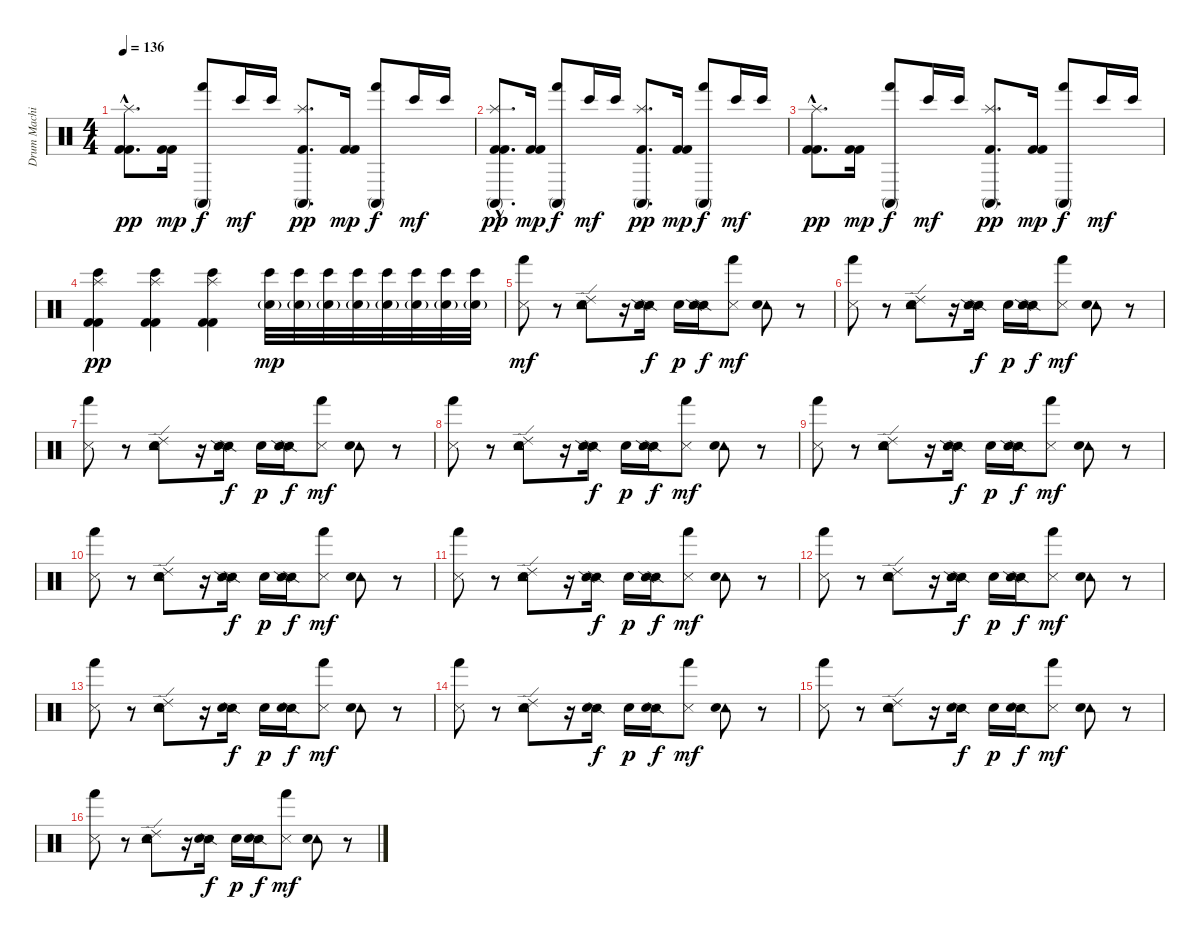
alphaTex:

\track ("Drum Machine" "Drum Machi") {instrument percussion}
\staff {score}
\articulation defaults
\ts (4 4)
\tempo 136
\clef neutral
\ks c
("Kick (hit) 2" "Splash (hit)" "Kick (hit) 2"{hac}).8{d dy pp} ("Kick (hit) 2" "Kick (hit) 2").16{dy mp} ("Hand (hit)" "Conga high (mute)").8{dy f} "Bongo High (hit)".16{dy mf} "Bongo High (hit)".16 ("Conga high (mute)" "Kick (hit) 2" "Splash (hit)").8{d dy pp} ("Kick (hit) 2" "Kick (hit) 2").16{dy mp} ("Hand (hit)" "Conga high (mute)").8{dy f} "Bongo High (hit)".16{dy mf} "Bongo High (hit)".16 |
("Conga high (mute)" "Kick (hit) 2" "Splash (hit)" "Kick (hit) 2"{hac}).8{d dy pp} ("Kick (hit) 2" "Kick (hit) 2").16{dy mp} ("Hand (hit)" "Conga high (mute)").8{dy f} "Bongo High (hit)".16{dy mf} "Bongo High (hit)".16 ("Conga high (mute)" "Kick (hit) 2" "Splash (hit)").8{d dy pp} ("Kick (hit) 2" "Kick (hit) 2").16{dy mp} ("Hand (hit)" "Conga high (mute)").8{dy f} "Bongo High (hit)".16{dy mf} "Bongo High (hit)".16 |
("Kick (hit) 2" "Splash (hit)" "Kick (hit) 2"{hac}).8{d dy pp} ("Kick (hit) 2" "Kick (hit) 2").16{dy mp} ("Hand (hit)" "Conga high (mute)").8{dy f} "Bongo High (hit)".16{dy mf} "Bongo High (hit)".16 ("Conga high (mute)" "Kick (hit) 2" "Splash (hit)").8{d dy pp} ("Kick (hit) 2" "Kick (hit) 2").16{dy mp} ("Hand (hit)" "Conga high (mute)").8{dy f} "Bongo High (hit)".16{dy mf} "Bongo High (hit)".16 |
("Kick (hit) 2" "Splash (hit)" "Kick (hit) 2" "Bongo High (hit)").4{dy pp} ("Kick (hit) 2" "Splash (hit)" "Kick (hit) 2" "Bongo High (hit)").4 ("Splash (hit)" "Bongo High (hit)" "Kick (hit) 2" "Kick (hit) 2").4 ("Bongo High (hit)" "Electric Snare (hit)"{g}).32{dy mp} ("Bongo High (hit)" "Electric Snare (hit)"{g}).32 ("Bongo High (hit)" "Electric Snare (hit)"{g}).32 ("Bongo High (hit)" "Electric Snare (hit)"{g}).32 ("Bongo High (hit)" "Electric Snare (hit)"{g}).32 ("Bongo High (hit)" "Electric Snare (hit)"{g}).32 ("Bongo High (hit)" "Electric Snare (hit)"{g}).32 ("Bongo High (hit)" "Electric Snare (hit)"{g}).32 |
("Hand (hit)" "Metronome (hit)").8{dy mf} r.8 ("Tambourine (hit)" "Metronome (bell)" "Ride (edge) 2").8 r.16 ("Snare (side stick) 2" "Snare (side stick) 2").16{dy f} "Metronome (bell)".16{dy p} ("Snare (side stick) 2" "Snare (side stick) 2").16{dy f} ("Metronome (hit)" "Hand (hit)").8{dy mf} ("Tambourine (hit)" "Metronome (bell)").8 r.8 |
("Hand (hit)" "Metronome (hit)").8 r.8 ("Tambourine (hit)" "Metronome (bell)" "Ride (edge) 2").8 r.16 ("Snare (side stick) 2" "Snare (side stick) 2").16{dy f} "Metronome (bell)".16{dy p} ("Snare (side stick) 2" "Snare (side stick) 2").16{dy f} ("Metronome (hit)" "Hand (hit)").8{dy mf} ("Tambourine (hit)" "Metronome (bell)").8 r.8 |
("Hand (hit)" "Metronome (hit)").8 r.8 ("Tambourine (hit)" "Metronome (bell)" "Ride (edge) 2").8 r.16 ("Snare (side stick) 2" "Snare (side stick) 2").16{dy f} "Metronome (bell)".16{dy p} ("Snare (side stick) 2" "Snare (side stick) 2").16{dy f} ("Metronome (hit)" "Hand (hit)").8{dy mf} ("Tambourine (hit)" "Metronome (bell)").8 r.8 |
("Hand (hit)" "Metronome (hit)").8 r.8 ("Tambourine (hit)" "Metronome (bell)" "Ride (edge) 2").8 r.16 ("Snare (side stick) 2" "Snare (side stick) 2").16{dy f} "Metronome (bell)".16{dy p} ("Snare (side stick) 2" "Snare (side stick) 2").16{dy f} ("Metronome (hit)" "Hand (hit)").8{dy mf} ("Tambourine (hit)" "Metronome (bell)").8 r.8 |
("Hand (hit)" "Metronome (hit)").8 r.8 ("Tambourine (hit)" "Metronome (bell)" "Ride (edge) 2").8 r.16 ("Snare (side stick) 2" "Snare (side stick) 2").16{dy f} "Metronome (bell)".16{dy p} ("Snare (side stick) 2" "Snare (side stick) 2").16{dy f} ("Metronome (hit)" "Hand (hit)").8{dy mf} ("Tambourine (hit)" "Metronome (bell)").8 r.8 |
("Hand (hit)" "Metronome (hit)").8 r.8 ("Tambourine (hit)" "Metronome (bell)" "Ride (edge) 2").8 r.16 ("Snare (side stick) 2" "Snare (side stick) 2").16{dy f} "Metronome (bell)".16{dy p} ("Snare (side stick) 2" "Snare (side stick) 2").16{dy f} ("Metronome (hit)" "Hand (hit)").8{dy mf} ("Tambourine (hit)" "Metronome (bell)").8 r.8 |
("Hand (hit)" "Metronome (hit)").8 r.8 ("Tambourine (hit)" "Metronome (bell)" "Ride (edge) 2").8 r.16 ("Snare (side stick) 2" "Snare (side stick) 2").16{dy f} "Metronome (bell)".16{dy p} ("Snare (side stick) 2" "Snare (side stick) 2").16{dy f} ("Metronome (hit)" "Hand (hit)").8{dy mf} ("Tambourine (hit)" "Metronome (bell)").8 r.8 |
("Hand (hit)" "Metronome (hit)").8 r.8 ("Tambourine (hit)" "Metronome (bell)" "Ride (edge) 2").8 r.16 ("Snare (side stick) 2" "Snare (side stick) 2").16{dy f} "Metronome (bell)".16{dy p} ("Snare (side stick) 2" "Snare (side stick) 2").16{dy f} ("Metronome (hit)" "Hand (hit)").8{dy mf} ("Tambourine (hit)" "Metronome (bell)").8 r.8 |
("Hand (hit)" "Metronome (hit)").8 r.8 ("Tambourine (hit)" "Metronome (bell)" "Ride (edge) 2").8 r.16 ("Snare (side stick) 2" "Snare (hit) 2").16{dy f} "Metronome (bell)".16{dy p} ("Snare (side stick) 2" "Snare (hit) 2").16{dy f} ("Metronome (hit)" "Hand (hit)").8{dy mf} ("Tambourine (hit)" "Metronome (bell)").8 r.8 |
("Hand (hit)" "Metronome (hit)").8 r.8 ("Tambourine (hit)" "Metronome (bell)" "Ride (edge) 2").8 r.16 ("Snare (side stick) 2" "Snare (hit) 2").16{dy f} "Metronome (bell)".16{dy p} ("Snare (side stick) 2" "Snare (hit) 2").16{dy f} ("Metronome (hit)" "Hand (hit)").8{dy mf} ("Tambourine (hit)" "Metronome (bell)").8 r.8 |
("Hand (hit)" "Metronome (hit)").8 r.8 ("Tambourine (hit)" "Metronome (bell)" "Ride (edge) 2").8 r.16 ("Snare (side stick) 2" "Snare (hit) 2").16{dy f} "Metronome (bell)".16{dy p} ("Snare (side stick) 2" "Snare (hit) 2").16{dy f} ("Metronome (hit)" "Hand (hit)").8{dy mf} ("Tambourine (hit)" "Metronome (bell)").8 r.8 |
("Hand (hit)" "Metronome (hit)").8 r.8 ("Tambourine (hit)" "Metronome (bell)" "Ride (edge) 2").8 r.16 ("Snare (side stick) 2" "Snare (hit) 2").16{dy f} "Metronome (bell)".16{dy p} ("Snare (side stick) 2" "Snare (hit) 2").16{dy f} ("Metronome (hit)" "Hand (hit)").8{dy mf} ("Tambourine (hit)" "Metronome (bell)").8 r.8
